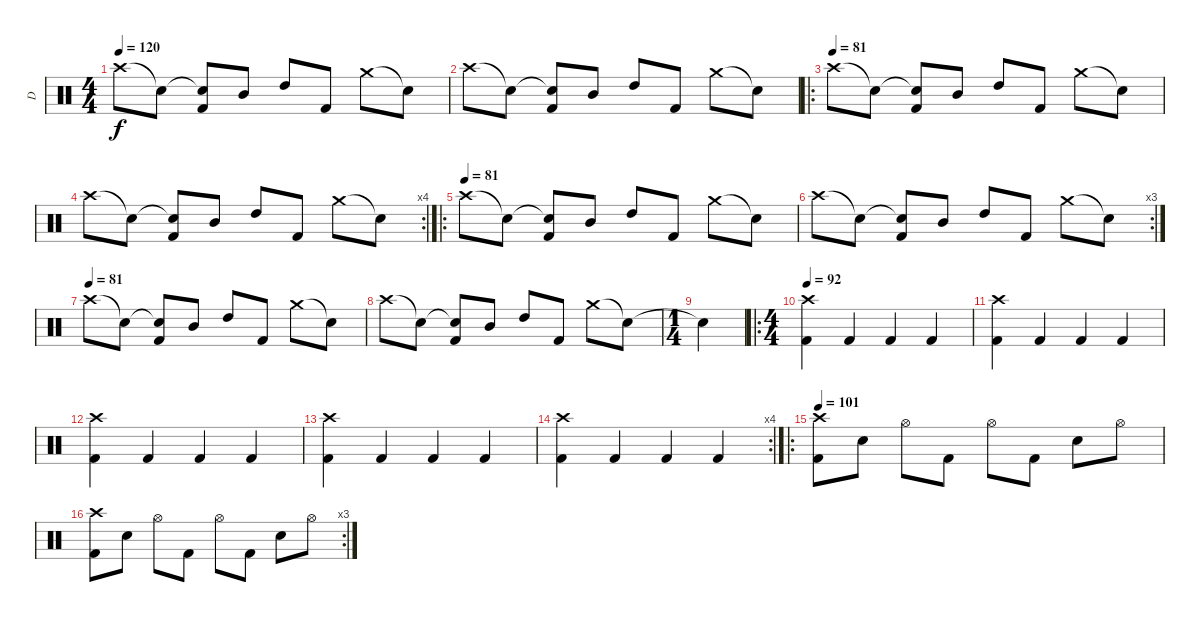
\track ("D" "D") {instrument percussion}
\staff {score}
\articulation defaults
\ts (4 4)
\tempo 120
\tempo 81
\tempo 120
\clef neutral
\ks c "Crash high (hit)".8{dy f} "Snare (hit)"{t}.8
("Snare (hit)"{t} "Kick (hit) 2").8 "Mid Tom (hit)".8 "High Tom (hit)".8 "Kick (hit) 2".8 "Crash medium (hit)".8 "Snare (hit)"{t}.8 |
"Crash high (hit)".8 "Snare (hit)"{t}.8 ("Snare (hit)"{t} "Kick (hit) 2").8 "Mid Tom (hit)".8 "High Tom (hit)".8 "Kick (hit) 2".8 "Crash medium (hit)".8 "Snare (hit)"{t}.8 |
\ro
\tempo (81)
"Crash high (hit)".8 "Snare (hit)"{t}.8 ("Snare (hit)"{t} "Kick (hit) 2").8 "Mid Tom (hit)".8 "High Tom (hit)".8 "Kick (hit) 2".8 "Crash medium (hit)".8 "Snare (hit)"{t}.8 |
\rc 4 "Crash high (hit)".8 "Snare (hit)"{t}.8
("Snare (hit)"{t} "Kick (hit) 2").8 "Mid Tom (hit)".8 "High Tom (hit)".8 "Kick (hit) 2".8 "Crash medium (hit)".8 "Snare (hit)"{t}.8 |
\ro
\tempo (81)
"Crash high (hit)".8 "Snare (hit)"{t}.8 ("Snare (hit)"{t} "Kick (hit) 2").8 "Mid Tom (hit)".8 "High Tom (hit)".8 "Kick (hit) 2".8 "Crash medium (hit)".8 "Snare (hit)"{t}.8 |
\rc 3 "Crash high (hit)".8 "Snare (hit)"{t}.8
("Snare (hit)"{t} "Kick (hit) 2").8 "Mid Tom (hit)".8 "High Tom (hit)".8 "Kick (hit) 2".8 "Crash medium (hit)".8 "Snare (hit)"{t}.8 |
\tempo (81)
"Crash high (hit)".8 "Snare (hit)"{t}.8 ("Snare (hit)"{t} "Kick (hit) 2").8 "Mid Tom (hit)".8 "High Tom (hit)".8 "Kick (hit) 2".8 "Crash medium (hit)".8 "Snare (hit)"{t}.8 |
"Crash high (hit)".8 "Snare (hit)"{t}.8 ("Snare (hit)"{t} "Kick (hit) 2").8 "Mid Tom (hit)".8 "High Tom (hit)".8 "Kick (hit) 2".8 "Crash medium (hit)".8 "Snare (hit)"{t}.8 |
\ts (1 4)
"Snare (hit)"{t}.4 |
\ro
\ts (4 4)
\tempo 92
("Crash high (hit)" "Kick (hit) 2").4 "Kick (hit) 2".4 "Kick (hit) 2".4 "Kick (hit) 2".4 |
("Crash high (hit)" "Kick (hit) 2").4 "Kick (hit) 2".4 "Kick (hit) 2".4 "Kick (hit) 2".4 |
("Crash high (hit)" "Kick (hit) 2").4 "Kick (hit) 2".4 "Kick (hit) 2".4 "Kick (hit) 2".4 |
("Crash high (hit)" "Kick (hit) 2").4 "Kick (hit) 2".4 "Kick (hit) 2".4 "Kick (hit) 2".4 |
\rc 4
("Crash high (hit)" "Kick (hit) 2").4 "Kick (hit) 2".4 "Kick (hit) 2".4 "Kick (hit) 2".4 |
\ro
\tempo 101
("Crash high (hit)" "Kick (hit) 2").8 "Electric Snare (hit)".8 "Hi-Hat (open)".8 "Kick (hit) 2".8 "Hi-Hat (open)".8 "Kick (hit) 2".8 "Electric Snare (hit)".8 "Hi-Hat (open)".8 |
\rc 3
("Crash high (hit)" "Kick (hit) 2").8 "Electric Snare (hit)".8 "Hi-Hat (open)".8 "Kick (hit) 2".8 "Hi-Hat (open)".8 "Kick (hit) 2".8 "Electric Snare (hit)".8 "Hi-Hat (open)".8
